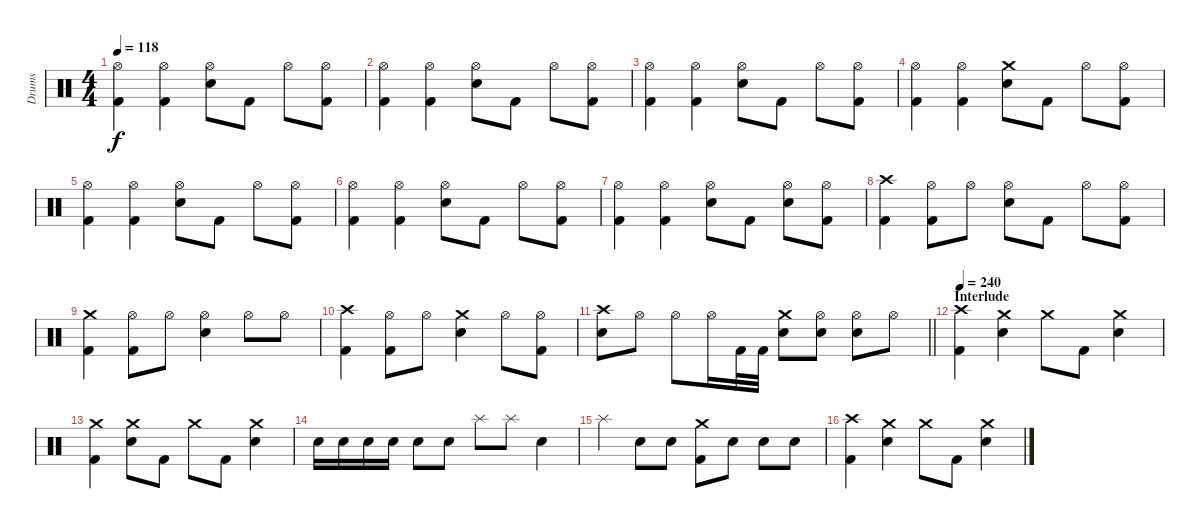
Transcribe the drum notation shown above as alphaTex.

\track ("Drums" "Drums") {instrument percussion}
\staff {score}
\articulation defaults
\ts (4 4)
\tempo 118
\clef neutral
\ks c
("Hi-Hat (open)" "Kick (hit) 2").4{dy f} ("Hi-Hat (open)" "Kick (hit) 2").4 ("Hi-Hat (open)" "Snare (hit) 2").8 "Kick (hit) 2".8 "Hi-Hat (open)".8 ("Hi-Hat (open)" "Kick (hit) 2").8 |
("Hi-Hat (open)" "Kick (hit) 2").4 ("Hi-Hat (open)" "Kick (hit) 2").4 ("Hi-Hat (open)" "Snare (hit) 2").8 "Kick (hit) 2".8 "Hi-Hat (open)".8 ("Hi-Hat (open)" "Kick (hit) 2").8 |
("Hi-Hat (open)" "Kick (hit) 2").4 ("Hi-Hat (open)" "Kick (hit) 2").4 ("Hi-Hat (open)" "Snare (hit) 2").8 "Kick (hit) 2".8 "Hi-Hat (open)".8 ("Hi-Hat (open)" "Kick (hit) 2").8 |
("Hi-Hat (open)" "Kick (hit) 2").4 ("Hi-Hat (open)" "Kick (hit) 2").4 ("Crash medium (hit)" "Snare (hit) 2").8 "Kick (hit) 2".8 "Hi-Hat (open)".8 ("Hi-Hat (open)" "Kick (hit) 2").8 |
("Hi-Hat (open)" "Kick (hit) 2").4 ("Hi-Hat (open)" "Kick (hit) 2").4 ("Hi-Hat (open)" "Snare (hit) 2").8 "Kick (hit) 2".8 "Hi-Hat (open)".8 ("Hi-Hat (open)" "Kick (hit) 2").8 |
("Hi-Hat (open)" "Kick (hit) 2").4 ("Hi-Hat (open)" "Kick (hit) 2").4 ("Hi-Hat (open)" "Snare (hit) 2").8 "Kick (hit) 2".8 "Hi-Hat (open)".8 ("Hi-Hat (open)" "Kick (hit) 2").8 |
("Hi-Hat (open)" "Kick (hit) 2").4 ("Hi-Hat (open)" "Kick (hit) 2").4 ("Hi-Hat (open)" "Snare (hit) 2").8 "Kick (hit) 2".8 ("Hi-Hat (open)" "Snare (hit) 2").8 ("Hi-Hat (open)" "Kick (hit) 2").8 |
("Crash high (hit)" "Kick (hit) 2").4 ("Hi-Hat (open)" "Kick (hit) 2").8 "Hi-Hat (open)".8 ("Hi-Hat (open)" "Snare (hit) 2").8 "Kick (hit) 2".8 "Hi-Hat (open)".8 ("Hi-Hat (open)" "Kick (hit) 2").8 |
("Crash medium (hit)" "Kick (hit) 2").4 ("Hi-Hat (open)" "Kick (hit) 2").8 "Hi-Hat (open)".8 ("Hi-Hat (open)" "Snare (hit) 2").4 "Hi-Hat (open)".8 "Hi-Hat (open)".8 |
("Crash high (hit)" "Kick (hit) 2").4 ("Hi-Hat (open)" "Kick (hit) 2").8 "Hi-Hat (open)".8 ("Crash medium (hit)" "Snare (hit) 2").4 "Hi-Hat (open)".8 ("Hi-Hat (open)" "Kick (hit) 2").8 |
\barLineRight lightlight
("Crash high (hit)" "Snare (hit) 2").8 "Hi-Hat (open)".8 "Hi-Hat (open)".8 "Hi-Hat (open)".16 "Kick (hit) 2".32 "Kick (hit) 2".32 ("Crash medium (hit)" "Snare (hit) 2").8 ("Hi-Hat (open)" "Snare (hit) 2").8 ("Hi-Hat (open)" "Snare (hit) 2").8 "Hi-Hat (open)".8 |
\section ("" "Interlude")
\tempo 240
("Crash high (hit)" "Kick (hit) 2").4 ("Crash medium (hit)" "Snare (hit) 2").4 "Crash medium (hit)".8 "Kick (hit) 2".8 ("Crash medium (hit)" "Snare (hit) 2").4 |
("Crash medium (hit)" "Kick (hit) 2").4 ("Crash medium (hit)" "Snare (hit) 2").8 "Kick (hit) 2".8 "Crash medium (hit)".8 "Kick (hit) 2".8 ("Crash medium (hit)" "Snare (hit) 2").4 |
"Snare (hit) 2".16 "Snare (hit) 2".16 "Snare (hit) 2".16 "Snare (hit) 2".16 "Snare (hit) 2".8 "Snare (hit) 2".8 "Splash (hit)".8 "Splash (hit)".8 "Snare (hit) 2".4 |
"Splash (hit)".4 "Snare (hit) 2".8 "Snare (hit) 2".8 ("Crash medium (hit)" "Kick (hit) 2").8 "Snare (hit) 2".8 "Snare (hit) 2".8 "Snare (hit) 2".8 |
("Crash high (hit)" "Kick (hit) 2").4 ("Crash medium (hit)" "Snare (hit) 2").4 "Crash medium (hit)".8 "Kick (hit) 2".8 ("Crash medium (hit)" "Snare (hit) 2").4
